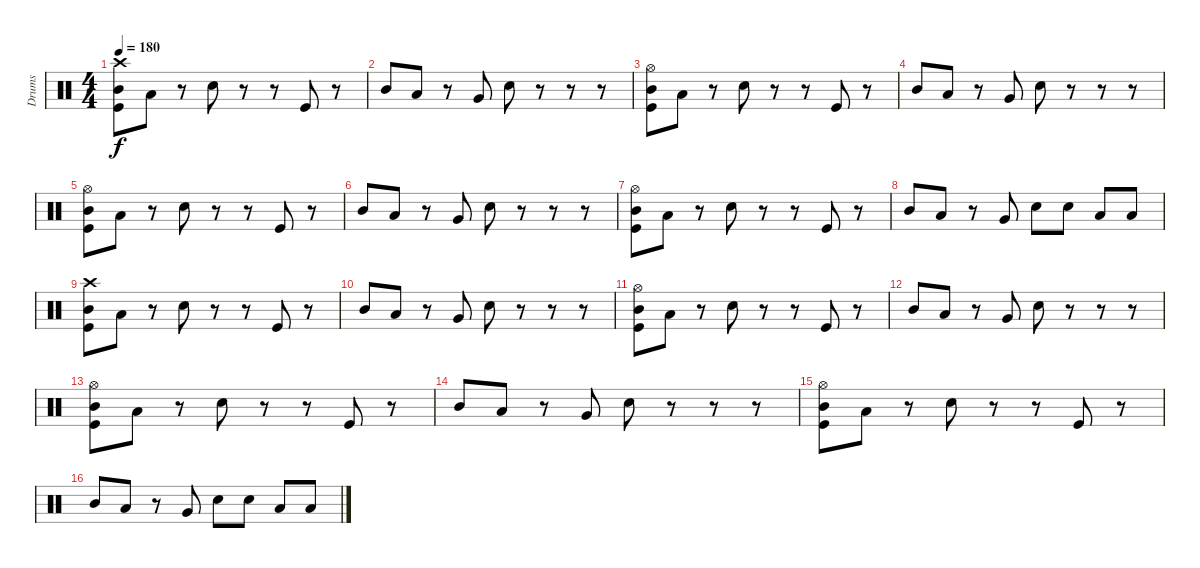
\track ("Drums" "Drums") {instrument percussion}
\staff {score}
\articulation defaults
\ts (4 4)
\tempo 180
\clef neutral
\ks c
("Crash high (hit)" "Mid Tom (hit)" "Kick (hit)").8{dy f} "Low Tom (hit)".8 r.8 "Snare (hit) 2".8 r.8 r.8 "Kick (hit)".8 r.8 |
"Mid Tom (hit)".8 "Low Tom (hit)".8 r.8 "Very Low Tom (hit)".8 "Snare (hit) 2".8 r.8 r.8 r.8 |
("Hi-Hat (open)" "Mid Tom (hit)" "Kick (hit)").8 "Low Tom (hit)".8 r.8 "Snare (hit) 2".8 r.8 r.8 "Kick (hit)".8 r.8 |
"Mid Tom (hit)".8 "Low Tom (hit)".8 r.8 "Very Low Tom (hit)".8 "Snare (hit) 2".8 r.8 r.8 r.8 |
("Hi-Hat (open)" "Mid Tom (hit)" "Kick (hit)").8 "Low Tom (hit)".8 r.8 "Snare (hit) 2".8 r.8 r.8 "Kick (hit)".8 r.8 |
"Mid Tom (hit)".8 "Low Tom (hit)".8 r.8 "Very Low Tom (hit)".8 "Snare (hit) 2".8 r.8 r.8 r.8 |
("Hi-Hat (open)" "Mid Tom (hit)" "Kick (hit)").8 "Low Tom (hit)".8 r.8 "Snare (hit) 2".8 r.8 r.8 "Kick (hit)".8 r.8 |
"Mid Tom (hit)".8 "Low Tom (hit)".8 r.8 "Very Low Tom (hit)".8 "Snare (hit) 2".8 "Snare (hit) 2".8 "Low Tom (hit)".8 "Low Tom (hit)".8 |
("Crash high (hit)" "Mid Tom (hit)" "Kick (hit)").8 "Low Tom (hit)".8 r.8 "Snare (hit) 2".8 r.8 r.8 "Kick (hit)".8 r.8 |
"Mid Tom (hit)".8 "Low Tom (hit)".8 r.8 "Very Low Tom (hit)".8 "Snare (hit) 2".8 r.8 r.8 r.8 |
("Hi-Hat (open)" "Mid Tom (hit)" "Kick (hit)").8 "Low Tom (hit)".8 r.8 "Snare (hit) 2".8 r.8 r.8 "Kick (hit)".8 r.8 |
"Mid Tom (hit)".8 "Low Tom (hit)".8 r.8 "Very Low Tom (hit)".8 "Snare (hit) 2".8 r.8 r.8 r.8 |
("Hi-Hat (open)" "Mid Tom (hit)" "Kick (hit)").8 "Low Tom (hit)".8 r.8 "Snare (hit) 2".8 r.8 r.8 "Kick (hit)".8 r.8 |
"Mid Tom (hit)".8 "Low Tom (hit)".8 r.8 "Very Low Tom (hit)".8 "Snare (hit) 2".8 r.8 r.8 r.8 |
("Hi-Hat (open)" "Mid Tom (hit)" "Kick (hit)").8 "Low Tom (hit)".8 r.8 "Snare (hit) 2".8 r.8 r.8 "Kick (hit)".8 r.8 |
"Mid Tom (hit)".8 "Low Tom (hit)".8 r.8 "Very Low Tom (hit)".8 "Snare (hit) 2".8 "Snare (hit) 2".8 "Low Tom (hit)".8 "Low Tom (hit)".8
